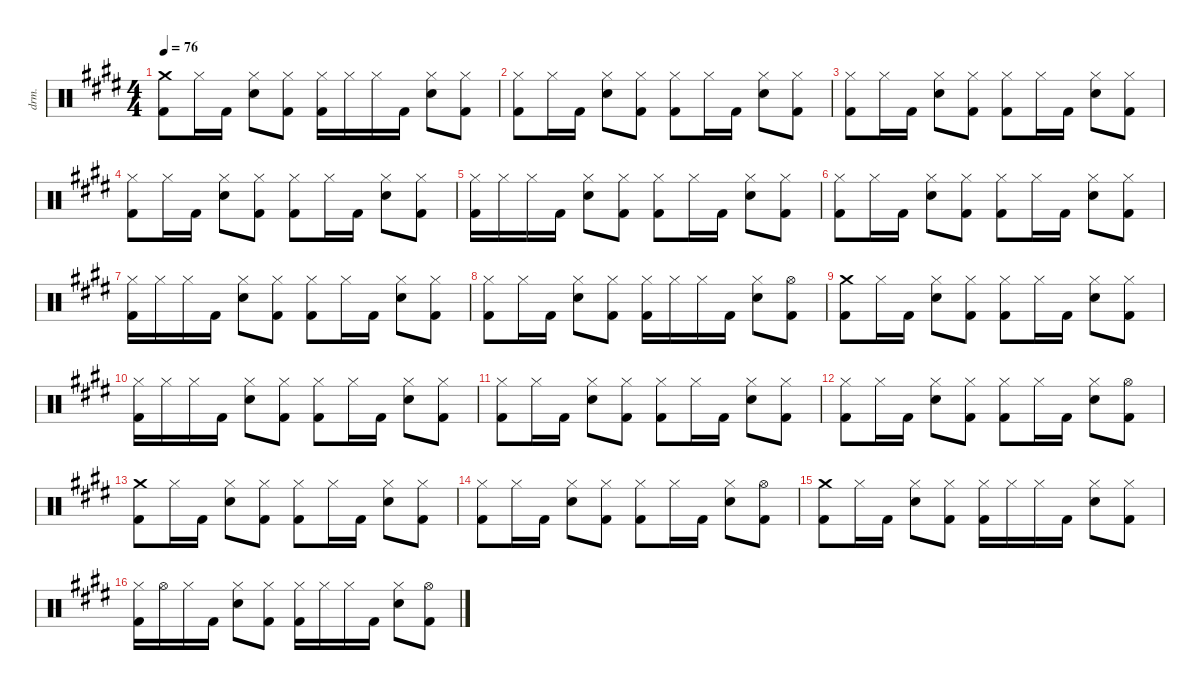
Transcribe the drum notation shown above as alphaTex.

\defaultSystemsLayout 4
\hideDynamics
\bracketExtendMode nobrackets
\otherSystemsTrackNameOrientation horizontal
\track ("Drums" "drm.") {instrument percussion}
\staff {score}
\articulation defaults
\ts (4 4)
\tempo 76
\clef neutral
\ks e
("Crash medium (hit)"{acc forcenatural} "Kick (hit) 2"{acc forcenatural}).8{dy f beam Down} "Hi-Hat (closed)"{acc forcenatural}.16{beam Down} "Kick (hit) 2"{acc forcenatural}.16{beam Down} ("Hi-Hat (closed)"{acc forcenatural} "Snare (hit) 2"{acc forcenatural}).8{dy mf beam Down} ("Hi-Hat (closed)"{acc forcenatural} "Kick (hit) 2"{acc forcenatural}).8{dy f beam Down} ("Hi-Hat (closed)"{acc forcenatural} "Kick (hit) 2"{acc forcenatural}).16{beam Down} "Hi-Hat (closed)"{acc forcenatural}.16{dy mf beam Down} "Hi-Hat (closed)"{acc forcenatural}.16{dy f beam Down} "Kick (hit) 2"{acc forcenatural}.16{beam Down} ("Hi-Hat (closed)"{acc forcenatural} "Snare (hit) 2"{acc forcenatural}).8{dy mf beam Down} ("Hi-Hat (closed)"{acc forcenatural} "Kick (hit) 2"{acc forcenatural}).8{dy f beam Down} |
("Hi-Hat (closed)"{acc forcenatural} "Kick (hit) 2"{acc forcenatural}).8{beam Down} "Hi-Hat (closed)"{acc forcenatural}.16{beam Down} "Kick (hit) 2"{acc forcenatural}.16{beam Down} ("Hi-Hat (closed)"{acc forcenatural} "Snare (hit) 2"{acc forcenatural}).8{dy mf beam Down} ("Hi-Hat (closed)"{acc forcenatural} "Kick (hit) 2"{acc forcenatural}).8{dy f beam Down} ("Hi-Hat (closed)"{acc forcenatural} "Kick (hit) 2"{acc forcenatural}).8{beam Down} "Hi-Hat (closed)"{acc forcenatural}.16{beam Down} "Kick (hit) 2"{acc forcenatural}.16{beam Down} ("Hi-Hat (closed)"{acc forcenatural} "Snare (hit) 2"{acc forcenatural}).8{dy mf beam Down} ("Hi-Hat (closed)"{acc forcenatural} "Kick (hit) 2"{acc forcenatural}).8{dy f beam Down} |
("Hi-Hat (closed)"{acc forcenatural} "Kick (hit) 2"{acc forcenatural}).8{beam Down} "Hi-Hat (closed)"{acc forcenatural}.16{beam Down} "Kick (hit) 2"{acc forcenatural}.16{beam Down} ("Hi-Hat (closed)"{acc forcenatural} "Snare (hit) 2"{acc forcenatural}).8{dy mf beam Down} ("Hi-Hat (closed)"{acc forcenatural} "Kick (hit) 2"{acc forcenatural}).8{dy f beam Down} ("Hi-Hat (closed)"{acc forcenatural} "Kick (hit) 2"{acc forcenatural}).8{beam Down} "Hi-Hat (closed)"{acc forcenatural}.16{beam Down} "Kick (hit) 2"{acc forcenatural}.16{beam Down} ("Hi-Hat (closed)"{acc forcenatural} "Snare (hit) 2"{acc forcenatural}).8{dy mf beam Down} ("Hi-Hat (closed)"{acc forcenatural} "Kick (hit) 2"{acc forcenatural}).8{dy f beam Down} |
("Hi-Hat (closed)"{acc forcenatural} "Kick (hit) 2"{acc forcenatural}).8{beam Down} "Hi-Hat (closed)"{acc forcenatural}.16{beam Down} "Kick (hit) 2"{acc forcenatural}.16{beam Down} ("Hi-Hat (closed)"{acc forcenatural} "Snare (hit) 2"{acc forcenatural}).8{dy mf beam Down} ("Hi-Hat (closed)"{acc forcenatural} "Kick (hit) 2"{acc forcenatural}).8{dy f beam Down} ("Hi-Hat (closed)"{acc forcenatural} "Kick (hit) 2"{acc forcenatural}).8{beam Down} "Hi-Hat (closed)"{acc forcenatural}.16{beam Down} "Kick (hit) 2"{acc forcenatural}.16{beam Down} ("Hi-Hat (closed)"{acc forcenatural} "Snare (hit) 2"{acc forcenatural}).8{dy mf beam Down} ("Hi-Hat (closed)"{acc forcenatural} "Kick (hit) 2"{acc forcenatural}).8{dy f beam Down} |
("Hi-Hat (closed)"{acc forcenatural} "Kick (hit) 2"{acc forcenatural}).16{beam Down} "Hi-Hat (closed)"{acc forcenatural}.16{dy mf beam Down} "Hi-Hat (closed)"{acc forcenatural}.16{dy f beam Down} "Kick (hit) 2"{acc forcenatural}.16{beam Down} ("Hi-Hat (closed)"{acc forcenatural} "Snare (hit) 2"{acc forcenatural}).8{dy mf beam Down} ("Hi-Hat (closed)"{acc forcenatural} "Kick (hit) 2"{acc forcenatural}).8{dy f beam Down} ("Hi-Hat (closed)"{acc forcenatural} "Kick (hit) 2"{acc forcenatural}).8{beam Down} "Hi-Hat (closed)"{acc forcenatural}.16{beam Down} "Kick (hit) 2"{acc forcenatural}.16{beam Down} ("Hi-Hat (closed)"{acc forcenatural} "Snare (hit) 2"{acc forcenatural}).8{dy mf beam Down} ("Hi-Hat (closed)"{acc forcenatural} "Kick (hit) 2"{acc forcenatural}).8{dy f beam Down} |
("Hi-Hat (closed)"{acc forcenatural} "Kick (hit) 2"{acc forcenatural}).8{beam Down} "Hi-Hat (closed)"{acc forcenatural}.16{beam Down} "Kick (hit) 2"{acc forcenatural}.16{beam Down} ("Hi-Hat (closed)"{acc forcenatural} "Snare (hit) 2"{acc forcenatural}).8{dy mf beam Down} ("Hi-Hat (closed)"{acc forcenatural} "Kick (hit) 2"{acc forcenatural}).8{dy f beam Down} ("Hi-Hat (closed)"{acc forcenatural} "Kick (hit) 2"{acc forcenatural}).8{beam Down} "Hi-Hat (closed)"{acc forcenatural}.16{beam Down} "Kick (hit) 2"{acc forcenatural}.16{beam Down} ("Hi-Hat (closed)"{acc forcenatural} "Snare (hit) 2"{acc forcenatural}).8{dy mf beam Down} ("Hi-Hat (closed)"{acc forcenatural} "Kick (hit) 2"{acc forcenatural}).8{dy f beam Down} |
("Hi-Hat (closed)"{acc forcenatural} "Kick (hit) 2"{acc forcenatural}).16{beam Down} "Hi-Hat (closed)"{acc forcenatural}.16{dy mf beam Down} "Hi-Hat (closed)"{acc forcenatural}.16{dy f beam Down} "Kick (hit) 2"{acc forcenatural}.16{beam Down} ("Hi-Hat (closed)"{acc forcenatural} "Snare (hit) 2"{acc forcenatural}).8{dy mf beam Down} ("Hi-Hat (closed)"{acc forcenatural} "Kick (hit) 2"{acc forcenatural}).8{dy f beam Down} ("Hi-Hat (closed)"{acc forcenatural} "Kick (hit) 2"{acc forcenatural}).8{beam Down} "Hi-Hat (closed)"{acc forcenatural}.16{beam Down} "Kick (hit) 2"{acc forcenatural}.16{beam Down} ("Hi-Hat (closed)"{acc forcenatural} "Snare (hit) 2"{acc forcenatural}).8{dy mf beam Down} ("Hi-Hat (closed)"{acc forcenatural} "Kick (hit) 2"{acc forcenatural}).8{dy f beam Down} |
("Hi-Hat (closed)"{acc forcenatural} "Kick (hit) 2"{acc forcenatural}).8{beam Down} "Hi-Hat (closed)"{acc forcenatural}.16{beam Down} "Kick (hit) 2"{acc forcenatural}.16{beam Down} ("Hi-Hat (closed)"{acc forcenatural} "Snare (hit) 2"{acc forcenatural}).8{dy mf beam Down} ("Hi-Hat (closed)"{acc forcenatural} "Kick (hit) 2"{acc forcenatural}).8{dy f beam Down} ("Hi-Hat (closed)"{acc forcenatural} "Kick (hit) 2"{acc forcenatural}).16{beam Down} "Hi-Hat (closed)"{acc forcenatural}.16{dy mf beam Down} "Hi-Hat (closed)"{acc forcenatural}.16{dy f beam Down} "Kick (hit) 2"{acc forcenatural}.16{beam Down} ("Hi-Hat (closed)"{acc forcenatural} "Snare (hit) 2"{acc forcenatural}).8{dy mf beam Down} ("Hi-Hat (open)"{acc forcenatural} "Kick (hit) 2"{acc forcenatural}).8{dy f beam Down} |
("Crash medium (hit)"{acc forcenatural} "Kick (hit) 2"{acc forcenatural}).8{beam Down} "Hi-Hat (closed)"{acc forcenatural}.16{beam Down} "Kick (hit) 2"{acc forcenatural}.16{beam Down} ("Hi-Hat (closed)"{acc forcenatural} "Snare (hit) 2"{acc forcenatural}).8{dy mf beam Down} ("Hi-Hat (closed)"{acc forcenatural} "Kick (hit) 2"{acc forcenatural}).8{dy f beam Down} ("Hi-Hat (closed)"{acc forcenatural} "Kick (hit) 2"{acc forcenatural}).8{beam Down} "Hi-Hat (closed)"{acc forcenatural}.16{beam Down} "Kick (hit) 2"{acc forcenatural}.16{beam Down} ("Hi-Hat (closed)"{acc forcenatural} "Snare (hit) 2"{acc forcenatural}).8{dy mf beam Down} ("Hi-Hat (closed)"{acc forcenatural} "Kick (hit) 2"{acc forcenatural}).8{dy f beam Down} |
("Hi-Hat (closed)"{acc forcenatural} "Kick (hit) 2"{acc forcenatural}).16{beam Down} "Hi-Hat (closed)"{acc forcenatural}.16{dy mf beam Down} "Hi-Hat (closed)"{acc forcenatural}.16{dy f beam Down} "Kick (hit) 2"{acc forcenatural}.16{beam Down} ("Hi-Hat (closed)"{acc forcenatural} "Snare (hit) 2"{acc forcenatural}).8{dy mf beam Down} ("Hi-Hat (closed)"{acc forcenatural} "Kick (hit) 2"{acc forcenatural}).8{dy f beam Down} ("Hi-Hat (closed)"{acc forcenatural} "Kick (hit) 2"{acc forcenatural}).8{beam Down} "Hi-Hat (closed)"{acc forcenatural}.16{beam Down} "Kick (hit) 2"{acc forcenatural}.16{beam Down} ("Hi-Hat (closed)"{acc forcenatural} "Snare (hit) 2"{acc forcenatural}).8{dy mf beam Down} ("Hi-Hat (closed)"{acc forcenatural} "Kick (hit) 2"{acc forcenatural}).8{dy f beam Down} |
("Hi-Hat (closed)"{acc forcenatural} "Kick (hit) 2"{acc forcenatural}).8{beam Down} "Hi-Hat (closed)"{acc forcenatural}.16{beam Down} "Kick (hit) 2"{acc forcenatural}.16{beam Down} ("Hi-Hat (closed)"{acc forcenatural} "Snare (hit) 2"{acc forcenatural}).8{dy mf beam Down} ("Hi-Hat (closed)"{acc forcenatural} "Kick (hit) 2"{acc forcenatural}).8{dy f beam Down} ("Hi-Hat (closed)"{acc forcenatural} "Kick (hit) 2"{acc forcenatural}).8{beam Down} "Hi-Hat (closed)"{acc forcenatural}.16{beam Down} "Kick (hit) 2"{acc forcenatural}.16{beam Down} ("Hi-Hat (closed)"{acc forcenatural} "Snare (hit) 2"{acc forcenatural}).8{dy mf beam Down} ("Hi-Hat (closed)"{acc forcenatural} "Kick (hit) 2"{acc forcenatural}).8{dy f beam Down} |
("Hi-Hat (closed)"{acc forcenatural} "Kick (hit) 2"{acc forcenatural}).8{beam Down} "Hi-Hat (closed)"{acc forcenatural}.16{beam Down} "Kick (hit) 2"{acc forcenatural}.16{beam Down} ("Hi-Hat (closed)"{acc forcenatural} "Snare (hit) 2"{acc forcenatural}).8{dy mf beam Down} ("Hi-Hat (closed)"{acc forcenatural} "Kick (hit) 2"{acc forcenatural}).8{dy f beam Down} ("Hi-Hat (closed)"{acc forcenatural} "Kick (hit) 2"{acc forcenatural}).8{beam Down} "Hi-Hat (closed)"{acc forcenatural}.16{beam Down} "Kick (hit) 2"{acc forcenatural}.16{beam Down} ("Hi-Hat (closed)"{acc forcenatural} "Snare (hit) 2"{acc forcenatural}).8{dy mf beam Down} ("Hi-Hat (open)"{acc forcenatural} "Kick (hit) 2"{acc forcenatural}).8{dy f beam Down} |
("Crash medium (hit)"{acc forcenatural} "Kick (hit) 2"{acc forcenatural}).8{beam Down} "Hi-Hat (closed)"{acc forcenatural}.16{beam Down} "Kick (hit) 2"{acc forcenatural}.16{beam Down} ("Hi-Hat (closed)"{acc forcenatural} "Snare (hit) 2"{acc forcenatural}).8{dy mf beam Down} ("Hi-Hat (closed)"{acc forcenatural} "Kick (hit) 2"{acc forcenatural}).8{dy f beam Down} ("Hi-Hat (closed)"{acc forcenatural} "Kick (hit) 2"{acc forcenatural}).8{beam Down} "Hi-Hat (closed)"{acc forcenatural}.16{beam Down} "Kick (hit) 2"{acc forcenatural}.16{beam Down} ("Hi-Hat (closed)"{acc forcenatural} "Snare (hit) 2"{acc forcenatural}).8{dy mf beam Down} ("Hi-Hat (closed)"{acc forcenatural} "Kick (hit) 2"{acc forcenatural}).8{dy f beam Down} |
("Hi-Hat (closed)"{acc forcenatural} "Kick (hit) 2"{acc forcenatural}).8{beam Down} "Hi-Hat (closed)"{acc forcenatural}.16{beam Down} "Kick (hit) 2"{acc forcenatural}.16{beam Down} ("Hi-Hat (closed)"{acc forcenatural} "Snare (hit) 2"{acc forcenatural}).8{dy mf beam Down} ("Hi-Hat (closed)"{acc forcenatural} "Kick (hit) 2"{acc forcenatural}).8{dy f beam Down} ("Hi-Hat (closed)"{acc forcenatural} "Kick (hit) 2"{acc forcenatural}).8{beam Down} "Hi-Hat (closed)"{acc forcenatural}.16{beam Down} "Kick (hit) 2"{acc forcenatural}.16{beam Down} ("Hi-Hat (closed)"{acc forcenatural} "Snare (hit) 2"{acc forcenatural}).8{dy mf beam Down} ("Hi-Hat (open)"{acc forcenatural} "Kick (hit) 2"{acc forcenatural}).8{dy f beam Down} |
("Crash medium (hit)"{acc forcenatural} "Kick (hit) 2"{acc forcenatural}).8{beam Down} "Hi-Hat (closed)"{acc forcenatural}.16{beam Down} "Kick (hit) 2"{acc forcenatural}.16{beam Down} ("Hi-Hat (closed)"{acc forcenatural} "Snare (hit) 2"{acc forcenatural}).8{dy mf beam Down} ("Hi-Hat (closed)"{acc forcenatural} "Kick (hit) 2"{acc forcenatural}).8{dy f beam Down} ("Hi-Hat (closed)"{acc forcenatural} "Kick (hit) 2"{acc forcenatural}).16{beam Down} "Hi-Hat (closed)"{acc forcenatural}.16{dy mf beam Down} "Hi-Hat (closed)"{acc forcenatural}.16{dy f beam Down} "Kick (hit) 2"{acc forcenatural}.16{beam Down} ("Hi-Hat (closed)"{acc forcenatural} "Snare (hit) 2"{acc forcenatural}).8{dy mf beam Down} ("Hi-Hat (closed)"{acc forcenatural} "Kick (hit) 2"{acc forcenatural}).8{dy f beam Down} |
("Hi-Hat (closed)"{acc forcenatural} "Kick (hit) 2"{acc forcenatural}).16{beam Down} "Hi-Hat (open)"{acc forcenatural}.16{beam Down} "Hi-Hat (closed)"{acc forcenatural}.16{beam Down} "Kick (hit) 2"{acc forcenatural}.16{beam Down} ("Hi-Hat (closed)"{acc forcenatural} "Snare (hit) 2"{acc forcenatural}).8{dy mf beam Down} ("Hi-Hat (closed)"{acc forcenatural} "Kick (hit) 2"{acc forcenatural}).8{dy f beam Down} ("Hi-Hat (closed)"{acc forcenatural} "Kick (hit) 2"{acc forcenatural}).16{beam Down} "Hi-Hat (closed)"{acc forcenatural}.16{dy mf beam Down} "Hi-Hat (closed)"{acc forcenatural}.16{dy f beam Down} "Kick (hit) 2"{acc forcenatural}.16{beam Down} ("Hi-Hat (closed)"{acc forcenatural} "Snare (hit) 2"{acc forcenatural}).8{dy mf beam Down} ("Hi-Hat (open)"{acc forcenatural} "Kick (hit) 2"{acc forcenatural}).8{dy f beam Down}
